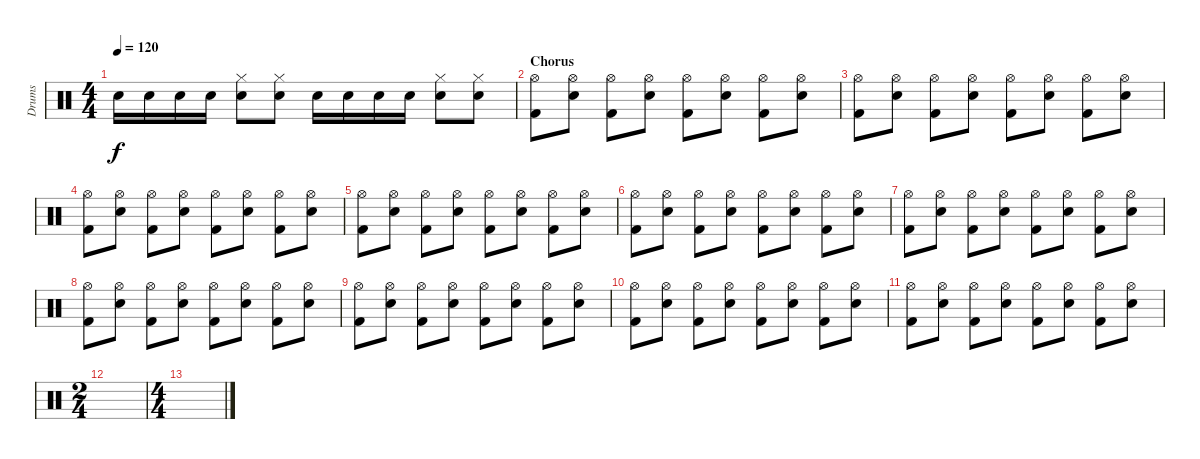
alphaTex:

\track ("Drums" "Drums") {instrument percussion}
\staff {score}
\articulation defaults
\ts (4 4)
\tempo 120
\clef neutral
\ks c "Snare (hit) 2".16{dy f} "Snare (hit) 2".16 "Snare (hit) 2".16 "Snare (hit) 2".16
("Hi-Hat (closed)" "Snare (hit) 2").8 ("Hi-Hat (closed)" "Snare (hit) 2").8 "Snare (hit) 2".16 "Snare (hit) 2".16 "Snare (hit) 2".16 "Snare (hit) 2".16 ("Hi-Hat (closed)" "Snare (hit) 2").8 ("Hi-Hat (closed)" "Snare (hit) 2").8 |
\section ("" "Chorus")
("Hi-Hat (open)" "Kick (hit) 2").8 ("Hi-Hat (open)" "Snare (hit) 2").8 ("Hi-Hat (open)" "Kick (hit) 2").8 ("Hi-Hat (open)" "Snare (hit) 2").8 ("Hi-Hat (open)" "Kick (hit) 2").8 ("Hi-Hat (open)" "Snare (hit) 2").8 ("Hi-Hat (open)" "Kick (hit) 2").8 ("Hi-Hat (open)" "Snare (hit) 2").8 |
("Hi-Hat (open)" "Kick (hit) 2").8 ("Hi-Hat (open)" "Snare (hit) 2").8 ("Hi-Hat (open)" "Kick (hit) 2").8 ("Hi-Hat (open)" "Snare (hit) 2").8 ("Hi-Hat (open)" "Kick (hit) 2").8 ("Hi-Hat (open)" "Snare (hit) 2").8 ("Hi-Hat (open)" "Kick (hit) 2").8 ("Hi-Hat (open)" "Snare (hit) 2").8 |
("Hi-Hat (open)" "Kick (hit) 2").8 ("Hi-Hat (open)" "Snare (hit) 2").8 ("Hi-Hat (open)" "Kick (hit) 2").8 ("Hi-Hat (open)" "Snare (hit) 2").8 ("Hi-Hat (open)" "Kick (hit) 2").8 ("Hi-Hat (open)" "Snare (hit) 2").8 ("Hi-Hat (open)" "Kick (hit) 2").8 ("Hi-Hat (open)" "Snare (hit) 2").8 |
("Hi-Hat (open)" "Kick (hit) 2").8 ("Hi-Hat (open)" "Snare (hit) 2").8 ("Hi-Hat (open)" "Kick (hit) 2").8 ("Hi-Hat (open)" "Snare (hit) 2").8 ("Hi-Hat (open)" "Kick (hit) 2").8 ("Hi-Hat (open)" "Snare (hit) 2").8 ("Hi-Hat (open)" "Kick (hit) 2").8 ("Hi-Hat (open)" "Snare (hit) 2").8 |
("Hi-Hat (open)" "Kick (hit) 2").8 ("Hi-Hat (open)" "Snare (hit) 2").8 ("Hi-Hat (open)" "Kick (hit) 2").8 ("Hi-Hat (open)" "Snare (hit) 2").8 ("Hi-Hat (open)" "Kick (hit) 2").8 ("Hi-Hat (open)" "Snare (hit) 2").8 ("Hi-Hat (open)" "Kick (hit) 2").8 ("Hi-Hat (open)" "Snare (hit) 2").8 |
("Hi-Hat (open)" "Kick (hit) 2").8 ("Hi-Hat (open)" "Snare (hit) 2").8 ("Hi-Hat (open)" "Kick (hit) 2").8 ("Hi-Hat (open)" "Snare (hit) 2").8 ("Hi-Hat (open)" "Kick (hit) 2").8 ("Hi-Hat (open)" "Snare (hit) 2").8 ("Hi-Hat (open)" "Kick (hit) 2").8 ("Hi-Hat (open)" "Snare (hit) 2").8 |
("Hi-Hat (open)" "Kick (hit) 2").8 ("Hi-Hat (open)" "Snare (hit) 2").8 ("Hi-Hat (open)" "Kick (hit) 2").8 ("Hi-Hat (open)" "Snare (hit) 2").8 ("Hi-Hat (open)" "Kick (hit) 2").8 ("Hi-Hat (open)" "Snare (hit) 2").8 ("Hi-Hat (open)" "Kick (hit) 2").8 ("Hi-Hat (open)" "Snare (hit) 2").8 |
("Hi-Hat (open)" "Kick (hit) 2").8 ("Hi-Hat (open)" "Snare (hit) 2").8 ("Hi-Hat (open)" "Kick (hit) 2").8 ("Hi-Hat (open)" "Snare (hit) 2").8 ("Hi-Hat (open)" "Kick (hit) 2").8 ("Hi-Hat (open)" "Snare (hit) 2").8 ("Hi-Hat (open)" "Kick (hit) 2").8 ("Hi-Hat (open)" "Snare (hit) 2").8 |
("Hi-Hat (open)" "Kick (hit) 2").8 ("Hi-Hat (open)" "Snare (hit) 2").8 ("Hi-Hat (open)" "Kick (hit) 2").8 ("Hi-Hat (open)" "Snare (hit) 2").8 ("Hi-Hat (open)" "Kick (hit) 2").8 ("Hi-Hat (open)" "Snare (hit) 2").8 ("Hi-Hat (open)" "Kick (hit) 2").8 ("Hi-Hat (open)" "Snare (hit) 2").8 |
("Hi-Hat (open)" "Kick (hit) 2").8 ("Hi-Hat (open)" "Snare (hit) 2").8 ("Hi-Hat (open)" "Kick (hit) 2").8 ("Hi-Hat (open)" "Snare (hit) 2").8 ("Hi-Hat (open)" "Kick (hit) 2").8 ("Hi-Hat (open)" "Snare (hit) 2").8 ("Hi-Hat (open)" "Kick (hit) 2").8 ("Hi-Hat (open)" "Snare (hit) 2").8 |
\ts (2 4)
|
\ts (4 4)
